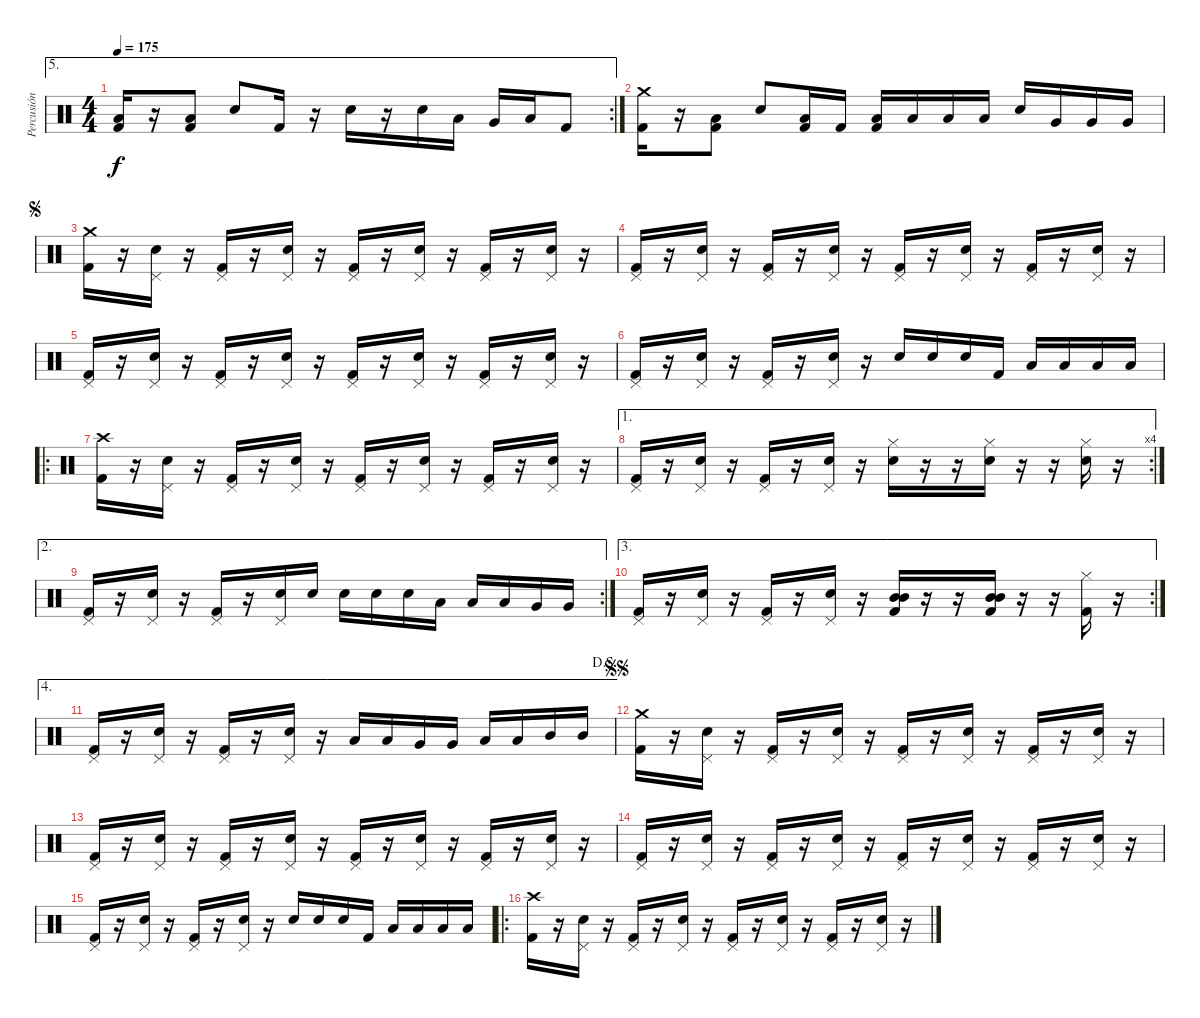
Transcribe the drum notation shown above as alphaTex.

\track ("Percusión" "Percusión") {solo instrument percussion}
\staff {score}
\articulation defaults
\ae 5
\rc 2
\ts (4 4)
\tempo 175
\clef neutral
\ks c
("Low Floor Tom (hit)" "Kick (hit) 2").16{dy f} r.16 ("Low Floor Tom (hit)" "Kick (hit) 2").8 "Electric Snare (hit)".8 "Kick (hit) 2".16 r.16 "Electric Snare (hit)".16 r.16 "Electric Snare (hit)".16 "Low Floor Tom (hit)".16 "Very Low Tom (hit)".16 "Low Tom (hit)".16 "Kick (hit) 2".8 |
("Crash medium (hit)" "Kick (hit) 2").16 r.16 ("Low Floor Tom (hit)" "Kick (hit) 2").8 "Electric Snare (hit)".8 ("Low Floor Tom (hit)" "Kick (hit) 2").16 "Kick (hit) 2".16 ("Low Floor Tom (hit)" "Kick (hit) 2").16 "Low Floor Tom (hit)".16 "Low Floor Tom (hit)".16 "Low Floor Tom (hit)".16 "Electric Snare (hit)".16 "Very Low Tom (hit)".16 "Very Low Tom (hit)".16 "Very Low Tom (hit)".16 |
\jump segno
("Crash medium (hit)" "Kick (hit) 2").16 r.16 ("Electric Snare (hit)" "Pedal Hi-Hat (hit)").16 r.16 ("Kick (hit) 2" "Pedal Hi-Hat (hit)").16 r.16 ("Electric Snare (hit)" "Pedal Hi-Hat (hit)").16 r.16 ("Kick (hit) 2" "Pedal Hi-Hat (hit)").16 r.16 ("Electric Snare (hit)" "Pedal Hi-Hat (hit)").16 r.16 ("Kick (hit) 2" "Pedal Hi-Hat (hit)").16 r.16 ("Electric Snare (hit)" "Pedal Hi-Hat (hit)").16 r.16 |
("Kick (hit) 2" "Pedal Hi-Hat (hit)").16 r.16 ("Electric Snare (hit)" "Pedal Hi-Hat (hit)").16 r.16 ("Kick (hit) 2" "Pedal Hi-Hat (hit)").16 r.16 ("Electric Snare (hit)" "Pedal Hi-Hat (hit)").16 r.16 ("Kick (hit) 2" "Pedal Hi-Hat (hit)").16 r.16 ("Electric Snare (hit)" "Pedal Hi-Hat (hit)").16 r.16 ("Kick (hit) 2" "Pedal Hi-Hat (hit)").16 r.16 ("Electric Snare (hit)" "Pedal Hi-Hat (hit)").16 r.16 |
("Kick (hit) 2" "Pedal Hi-Hat (hit)").16 r.16 ("Electric Snare (hit)" "Pedal Hi-Hat (hit)").16 r.16 ("Kick (hit) 2" "Pedal Hi-Hat (hit)").16 r.16 ("Electric Snare (hit)" "Pedal Hi-Hat (hit)").16 r.16 ("Kick (hit) 2" "Pedal Hi-Hat (hit)").16 r.16 ("Electric Snare (hit)" "Pedal Hi-Hat (hit)").16 r.16 ("Kick (hit) 2" "Pedal Hi-Hat (hit)").16 r.16 ("Electric Snare (hit)" "Pedal Hi-Hat (hit)").16 r.16 |
("Kick (hit) 2" "Pedal Hi-Hat (hit)").16 r.16 ("Electric Snare (hit)" "Pedal Hi-Hat (hit)").16 r.16 ("Kick (hit) 2" "Pedal Hi-Hat (hit)").16 r.16 ("Electric Snare (hit)" "Pedal Hi-Hat (hit)").16 r.16 "Electric Snare (hit)".16 "Electric Snare (hit)".16 "Electric Snare (hit)".16 "Kick (hit) 2".16 "Low Floor Tom (hit)".16 "Low Floor Tom (hit)".16 "Low Floor Tom (hit)".16 "Low Floor Tom (hit)".16 |
\ro
("Kick (hit) 2" "Crash high (hit)").16 r.16 ("Electric Snare (hit)" "Pedal Hi-Hat (hit)").16 r.16 ("Kick (hit) 2" "Pedal Hi-Hat (hit)").16 r.16 ("Electric Snare (hit)" "Pedal Hi-Hat (hit)").16 r.16 ("Kick (hit) 2" "Pedal Hi-Hat (hit)").16 r.16 ("Electric Snare (hit)" "Pedal Hi-Hat (hit)").16 r.16 ("Kick (hit) 2" "Pedal Hi-Hat (hit)").16 r.16 ("Electric Snare (hit)" "Pedal Hi-Hat (hit)").16 r.16 |
\ae 1
\rc 4
("Kick (hit) 2" "Pedal Hi-Hat (hit)").16 r.16 ("Electric Snare (hit)" "Pedal Hi-Hat (hit)").16 r.16 ("Kick (hit) 2" "Pedal Hi-Hat (hit)").16 r.16 ("Electric Snare (hit)" "Pedal Hi-Hat (hit)").16 r.16 ("Electric Snare (hit)" "Hi-Hat (closed)").16 r.16 r.16 ("Electric Snare (hit)" "Hi-Hat (closed)").16 r.16 r.16 ("Electric Snare (hit)" "Hi-Hat (closed)").16 r.16 |
\ae 2
\rc 2
("Kick (hit) 2" "Pedal Hi-Hat (hit)").16 r.16 ("Electric Snare (hit)" "Pedal Hi-Hat (hit)").16 r.16 ("Kick (hit) 2" "Pedal Hi-Hat (hit)").16 r.16 ("Electric Snare (hit)" "Pedal Hi-Hat (hit)").16 "Electric Snare (hit)".16 "Electric Snare (hit)".16 "Electric Snare (hit)".16 "Electric Snare (hit)".16 "Low Floor Tom (hit)".16 "Low Floor Tom (hit)".16 "Low Floor Tom (hit)".16 "Very Low Tom (hit)".16 "Very Low Tom (hit)".16 |
\ae 3
\rc 2
("Kick (hit) 2" "Pedal Hi-Hat (hit)").16 r.16 ("Electric Snare (hit)" "Pedal Hi-Hat (hit)").16 r.16 ("Kick (hit) 2" "Pedal Hi-Hat (hit)").16 r.16 ("Electric Snare (hit)" "Pedal Hi-Hat (hit)").16 r.16 ("Mid Tom (hit)" "Mid Tom (hit)" "Kick (hit) 2").16 r.16 r.16 ("Mid Tom (hit)" "Mid Tom (hit)" "Kick (hit) 2").16 r.16 r.16 ("Kick (hit) 2" "Hi-Hat (closed)").16 r.16 |
\ae 4
\jump dalsegno
("Kick (hit) 2" "Pedal Hi-Hat (hit)").16 r.16 ("Electric Snare (hit)" "Pedal Hi-Hat (hit)").16 r.16 ("Kick (hit) 2" "Pedal Hi-Hat (hit)").16 r.16 ("Electric Snare (hit)" "Pedal Hi-Hat (hit)").16 r.16 "Low Floor Tom (hit)".16 "Low Floor Tom (hit)".16 "Very Low Tom (hit)".16 "Very Low Tom (hit)".16 "Low Tom (hit)".16 "Low Tom (hit)".16 "Mid Tom (hit)".16 "Mid Tom (hit)".16 |
\jump segnosegno
("Crash medium (hit)" "Kick (hit) 2").16 r.16 ("Electric Snare (hit)" "Pedal Hi-Hat (hit)").16 r.16 ("Kick (hit) 2" "Pedal Hi-Hat (hit)").16 r.16 ("Electric Snare (hit)" "Pedal Hi-Hat (hit)").16 r.16 ("Kick (hit) 2" "Pedal Hi-Hat (hit)").16 r.16 ("Electric Snare (hit)" "Pedal Hi-Hat (hit)").16 r.16 ("Kick (hit) 2" "Pedal Hi-Hat (hit)").16 r.16 ("Electric Snare (hit)" "Pedal Hi-Hat (hit)").16 r.16 |
("Kick (hit) 2" "Pedal Hi-Hat (hit)").16 r.16 ("Electric Snare (hit)" "Pedal Hi-Hat (hit)").16 r.16 ("Kick (hit) 2" "Pedal Hi-Hat (hit)").16 r.16 ("Electric Snare (hit)" "Pedal Hi-Hat (hit)").16 r.16 ("Kick (hit) 2" "Pedal Hi-Hat (hit)").16 r.16 ("Electric Snare (hit)" "Pedal Hi-Hat (hit)").16 r.16 ("Kick (hit) 2" "Pedal Hi-Hat (hit)").16 r.16 ("Electric Snare (hit)" "Pedal Hi-Hat (hit)").16 r.16 |
("Kick (hit) 2" "Pedal Hi-Hat (hit)").16 r.16 ("Electric Snare (hit)" "Pedal Hi-Hat (hit)").16 r.16 ("Kick (hit) 2" "Pedal Hi-Hat (hit)").16 r.16 ("Electric Snare (hit)" "Pedal Hi-Hat (hit)").16 r.16 ("Kick (hit) 2" "Pedal Hi-Hat (hit)").16 r.16 ("Electric Snare (hit)" "Pedal Hi-Hat (hit)").16 r.16 ("Kick (hit) 2" "Pedal Hi-Hat (hit)").16 r.16 ("Electric Snare (hit)" "Pedal Hi-Hat (hit)").16 r.16 |
("Kick (hit) 2" "Pedal Hi-Hat (hit)").16 r.16 ("Electric Snare (hit)" "Pedal Hi-Hat (hit)").16 r.16 ("Kick (hit) 2" "Pedal Hi-Hat (hit)").16 r.16 ("Electric Snare (hit)" "Pedal Hi-Hat (hit)").16 r.16 "Electric Snare (hit)".16 "Electric Snare (hit)".16 "Electric Snare (hit)".16 "Kick (hit) 2".16 "Low Floor Tom (hit)".16 "Low Floor Tom (hit)".16 "Low Floor Tom (hit)".16 "Low Floor Tom (hit)".16 |
\ro
("Kick (hit) 2" "Crash high (hit)").16 r.16 ("Electric Snare (hit)" "Pedal Hi-Hat (hit)").16 r.16 ("Kick (hit) 2" "Pedal Hi-Hat (hit)").16 r.16 ("Electric Snare (hit)" "Pedal Hi-Hat (hit)").16 r.16 ("Kick (hit) 2" "Pedal Hi-Hat (hit)").16 r.16 ("Electric Snare (hit)" "Pedal Hi-Hat (hit)").16 r.16 ("Kick (hit) 2" "Pedal Hi-Hat (hit)").16 r.16 ("Electric Snare (hit)" "Pedal Hi-Hat (hit)").16 r.16
